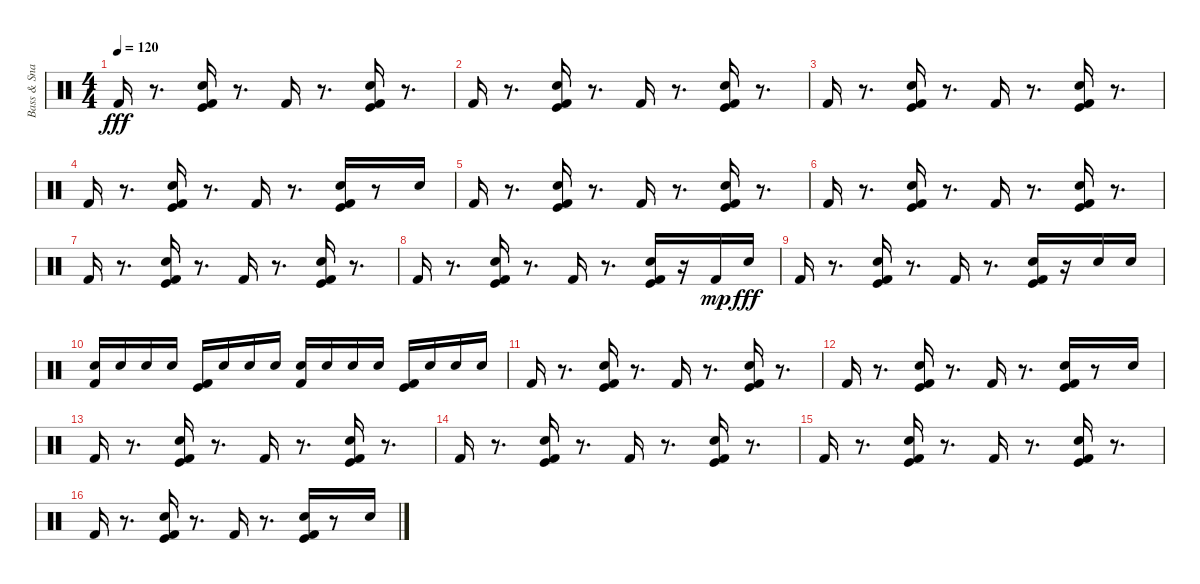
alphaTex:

\track ("Bass & Snare Drums" "Bass & Sna") {instrument percussion}
\staff {score}
\articulation defaults
\ts (4 4)
\tempo 120
\clef neutral
\ks c "Kick (hit) 2".16{dy fff}
r.8{d} ("Electric Snare (hit)" "Kick (hit) 2" "Kick (hit)").16 r.8{d} "Kick (hit) 2".16 r.8{d} ("Electric Snare (hit)" "Kick (hit)" "Kick (hit) 2").16 r.8{d} |
"Kick (hit) 2".16 r.8{d} ("Electric Snare (hit)" "Kick (hit) 2" "Kick (hit)").16 r.8{d} "Kick (hit) 2".16 r.8{d} ("Electric Snare (hit)" "Kick (hit)" "Kick (hit) 2").16 r.8{d} |
"Kick (hit) 2".16 r.8{d} ("Electric Snare (hit)" "Kick (hit) 2" "Kick (hit)").16 r.8{d} "Kick (hit) 2".16 r.8{d} ("Electric Snare (hit)" "Kick (hit)" "Kick (hit) 2").16 r.8{d} |
"Kick (hit) 2".16 r.8{d} ("Electric Snare (hit)" "Kick (hit) 2" "Kick (hit)").16 r.8{d} "Kick (hit) 2".16 r.8{d} ("Electric Snare (hit)" "Kick (hit)" "Kick (hit) 2").16 r.8 "Electric Snare (hit)".16 |
"Kick (hit) 2".16 r.8{d} ("Electric Snare (hit)" "Kick (hit) 2" "Kick (hit)").16 r.8{d} "Kick (hit) 2".16 r.8{d} ("Electric Snare (hit)" "Kick (hit)" "Kick (hit) 2").16 r.8{d} |
"Kick (hit) 2".16 r.8{d} ("Electric Snare (hit)" "Kick (hit) 2" "Kick (hit)").16 r.8{d} "Kick (hit) 2".16 r.8{d} ("Electric Snare (hit)" "Kick (hit)" "Kick (hit) 2").16 r.8{d} |
"Kick (hit) 2".16 r.8{d} ("Electric Snare (hit)" "Kick (hit) 2" "Kick (hit)").16 r.8{d} "Kick (hit) 2".16 r.8{d} ("Electric Snare (hit)" "Kick (hit)" "Kick (hit) 2").16 r.8{d} |
"Kick (hit) 2".16 r.8{d} ("Electric Snare (hit)" "Kick (hit) 2" "Kick (hit)").16 r.8{d} "Kick (hit) 2".16 r.8{d} ("Electric Snare (hit)" "Kick (hit)" "Kick (hit) 2").16 r.16 "Kick (hit) 2".16{dy mp} "Electric Snare (hit)".16{dy fff} |
"Kick (hit) 2".16 r.8{d} ("Electric Snare (hit)" "Kick (hit) 2" "Kick (hit)").16 r.8{d} "Kick (hit) 2".16 r.8{d} ("Electric Snare (hit)" "Kick (hit) 2" "Kick (hit)").16 r.16 "Electric Snare (hit)".16 "Electric Snare (hit)".16 |
("Electric Snare (hit)" "Kick (hit) 2").16 "Electric Snare (hit)".16 "Electric Snare (hit)".16 "Electric Snare (hit)".16 ("Kick (hit) 2" "Kick (hit)").16 "Electric Snare (hit)".16 "Electric Snare (hit)".16 "Electric Snare (hit)".16 ("Electric Snare (hit)" "Kick (hit) 2").16 "Electric Snare (hit)".16 "Electric Snare (hit)".16 "Electric Snare (hit)".16 ("Kick (hit) 2" "Kick (hit)").16 "Electric Snare (hit)".16 "Electric Snare (hit)".16 "Electric Snare (hit)".16 |
"Kick (hit) 2".16 r.8{d} ("Electric Snare (hit)" "Kick (hit)" "Kick (hit) 2").16 r.8{d} "Kick (hit) 2".16 r.8{d} ("Electric Snare (hit)" "Kick (hit)" "Kick (hit) 2").16 r.8{d} |
"Kick (hit) 2".16 r.8{d} ("Electric Snare (hit)" "Kick (hit) 2" "Kick (hit)").16 r.8{d} "Kick (hit) 2".16 r.8{d} ("Electric Snare (hit)" "Kick (hit)" "Kick (hit) 2").16 r.8 "Electric Snare (hit)".16 |
"Kick (hit) 2".16 r.8{d} ("Electric Snare (hit)" "Kick (hit)" "Kick (hit) 2").16 r.8{d} "Kick (hit) 2".16 r.8{d} ("Electric Snare (hit)" "Kick (hit)" "Kick (hit) 2").16 r.8{d} |
"Kick (hit) 2".16 r.8{d} ("Electric Snare (hit)" "Kick (hit) 2" "Kick (hit)").16 r.8{d} "Kick (hit) 2".16 r.8{d} ("Electric Snare (hit)" "Kick (hit)" "Kick (hit) 2").16 r.8{d} |
"Kick (hit) 2".16 r.8{d} ("Electric Snare (hit)" "Kick (hit)" "Kick (hit) 2").16 r.8{d} "Kick (hit) 2".16 r.8{d} ("Electric Snare (hit)" "Kick (hit)" "Kick (hit) 2").16 r.8{d} |
"Kick (hit) 2".16 r.8{d} ("Electric Snare (hit)" "Kick (hit) 2" "Kick (hit)").16 r.8{d} "Kick (hit) 2".16 r.8{d} ("Electric Snare (hit)" "Kick (hit)" "Kick (hit) 2").16 r.8 "Electric Snare (hit)".16
